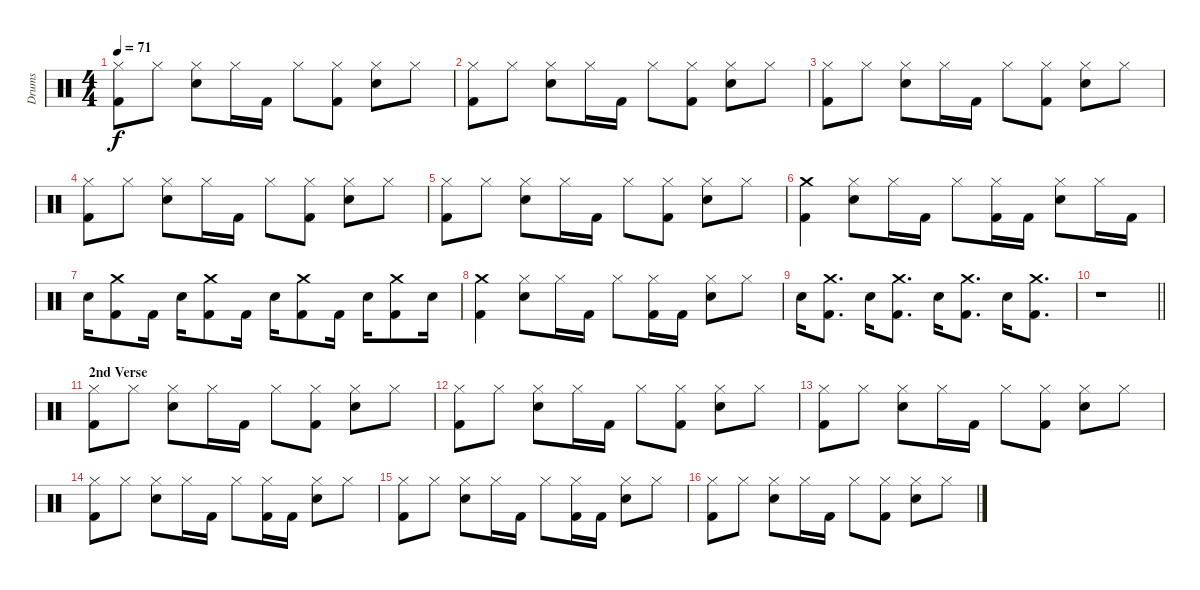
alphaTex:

\track ("Drums" "Drums") {instrument percussion}
\staff {score}
\articulation defaults
\ts (4 4)
\tempo 71
\clef neutral
\ks c
("Hi-Hat (closed)" "Kick (hit) 2").8{dy f} "Hi-Hat (closed)".8 ("Hi-Hat (closed)" "Snare (hit) 2").8 "Hi-Hat (closed)".16 "Kick (hit) 2".16 "Hi-Hat (closed)".8 ("Kick (hit) 2" "Hi-Hat (closed)").8 ("Hi-Hat (closed)" "Snare (hit) 2").8 "Hi-Hat (closed)".8 |
("Hi-Hat (closed)" "Kick (hit) 2").8 "Hi-Hat (closed)".8 ("Hi-Hat (closed)" "Snare (hit) 2").8 "Hi-Hat (closed)".16 "Kick (hit) 2".16 "Hi-Hat (closed)".8 ("Kick (hit) 2" "Hi-Hat (closed)").8 ("Hi-Hat (closed)" "Snare (hit) 2").8 "Hi-Hat (closed)".8 |
("Hi-Hat (closed)" "Kick (hit) 2").8 "Hi-Hat (closed)".8 ("Hi-Hat (closed)" "Snare (hit) 2").8 "Hi-Hat (closed)".16 "Kick (hit) 2".16 "Hi-Hat (closed)".8 ("Kick (hit) 2" "Hi-Hat (closed)").8 ("Hi-Hat (closed)" "Snare (hit) 2").8 "Hi-Hat (closed)".8 |
("Hi-Hat (closed)" "Kick (hit) 2").8 "Hi-Hat (closed)".8 ("Hi-Hat (closed)" "Snare (hit) 2").8 "Hi-Hat (closed)".16 "Kick (hit) 2".16 "Hi-Hat (closed)".8 ("Kick (hit) 2" "Hi-Hat (closed)").8 ("Hi-Hat (closed)" "Snare (hit) 2").8 "Hi-Hat (closed)".8 |
("Hi-Hat (closed)" "Kick (hit) 2").8 "Hi-Hat (closed)".8 ("Hi-Hat (closed)" "Snare (hit) 2").8 "Hi-Hat (closed)".16 "Kick (hit) 2".16 "Hi-Hat (closed)".8 ("Kick (hit) 2" "Hi-Hat (closed)").8 ("Hi-Hat (closed)" "Snare (hit) 2").8 "Hi-Hat (closed)".8 |
("Crash medium (hit)" "Kick (hit) 2").4 ("Snare (hit) 2" "Hi-Hat (closed)").8 "Hi-Hat (closed)".16 "Kick (hit) 2".16 "Hi-Hat (closed)".8 ("Hi-Hat (closed)" "Kick (hit) 2").16 "Kick (hit) 2".16 ("Hi-Hat (closed)" "Snare (hit) 2").8 "Hi-Hat (closed)".16 "Kick (hit) 2".16 |
"Snare (hit) 2".16 ("Crash medium (hit)" "Kick (hit) 2").8 "Kick (hit) 2".16 "Snare (hit) 2".16 ("Crash medium (hit)" "Kick (hit) 2").8 "Kick (hit) 2".16 "Snare (hit) 2".16 ("Crash medium (hit)" "Kick (hit) 2").8 "Kick (hit) 2".16 "Snare (hit) 2".16 ("Crash medium (hit)" "Kick (hit) 2").8 "Snare (hit) 2".16 |
("Kick (hit) 2" "Crash medium (hit)").4 ("Hi-Hat (closed)" "Snare (hit) 2").8 "Hi-Hat (closed)".16 "Kick (hit) 2".16 "Hi-Hat (closed)".8 ("Kick (hit) 2" "Hi-Hat (closed)").16 "Kick (hit) 2".16 ("Hi-Hat (closed)" "Snare (hit) 2").8 "Hi-Hat (closed)".8 |
"Snare (hit) 2".16 ("Crash medium (hit)" "Kick (hit) 2").8{d} "Snare (hit) 2".16 ("Crash medium (hit)" "Kick (hit) 2").8{d} "Snare (hit) 2".16 ("Crash medium (hit)" "Kick (hit) 2").8{d} "Snare (hit) 2".16 ("Crash medium (hit)" "Kick (hit) 2").8{d} |
\barLineRight lightlight
r.1 |
\section ("" "2nd Verse")
("Hi-Hat (closed)" "Kick (hit) 2").8 "Hi-Hat (closed)".8 ("Hi-Hat (closed)" "Snare (hit) 2").8 "Hi-Hat (closed)".16 "Kick (hit) 2".16 "Hi-Hat (closed)".8 ("Kick (hit) 2" "Hi-Hat (closed)").8 ("Hi-Hat (closed)" "Snare (hit) 2").8 "Hi-Hat (closed)".8 |
("Hi-Hat (closed)" "Kick (hit) 2").8 "Hi-Hat (closed)".8 ("Hi-Hat (closed)" "Snare (hit) 2").8 "Hi-Hat (closed)".16 "Kick (hit) 2".16 "Hi-Hat (closed)".8 ("Kick (hit) 2" "Hi-Hat (closed)").8 ("Hi-Hat (closed)" "Snare (hit) 2").8 "Hi-Hat (closed)".8 |
("Hi-Hat (closed)" "Kick (hit) 2").8 "Hi-Hat (closed)".8 ("Hi-Hat (closed)" "Snare (hit) 2").8 "Hi-Hat (closed)".16 "Kick (hit) 2".16 "Hi-Hat (closed)".8 ("Kick (hit) 2" "Hi-Hat (closed)").8 ("Hi-Hat (closed)" "Snare (hit) 2").8 "Hi-Hat (closed)".8 |
("Hi-Hat (closed)" "Kick (hit) 2").8 "Hi-Hat (closed)".8 ("Hi-Hat (closed)" "Snare (hit) 2").8 "Hi-Hat (closed)".16 "Kick (hit) 2".16 "Hi-Hat (closed)".8 ("Kick (hit) 2" "Hi-Hat (closed)").16 "Kick (hit) 2".16 ("Hi-Hat (closed)" "Snare (hit) 2").8 "Hi-Hat (closed)".8 |
("Hi-Hat (closed)" "Kick (hit) 2").8 "Hi-Hat (closed)".8 ("Hi-Hat (closed)" "Snare (hit) 2").8 "Hi-Hat (closed)".16 "Kick (hit) 2".16 "Hi-Hat (closed)".8 ("Kick (hit) 2" "Hi-Hat (closed)").16 "Kick (hit) 2".16 ("Hi-Hat (closed)" "Snare (hit) 2").8 "Hi-Hat (closed)".8 |
("Hi-Hat (closed)" "Kick (hit) 2").8 "Hi-Hat (closed)".8 ("Hi-Hat (closed)" "Snare (hit) 2").8 "Hi-Hat (closed)".16 "Kick (hit) 2".16 "Hi-Hat (closed)".8 ("Kick (hit) 2" "Hi-Hat (closed)").8 ("Hi-Hat (closed)" "Snare (hit) 2").8 "Hi-Hat (closed)".8
